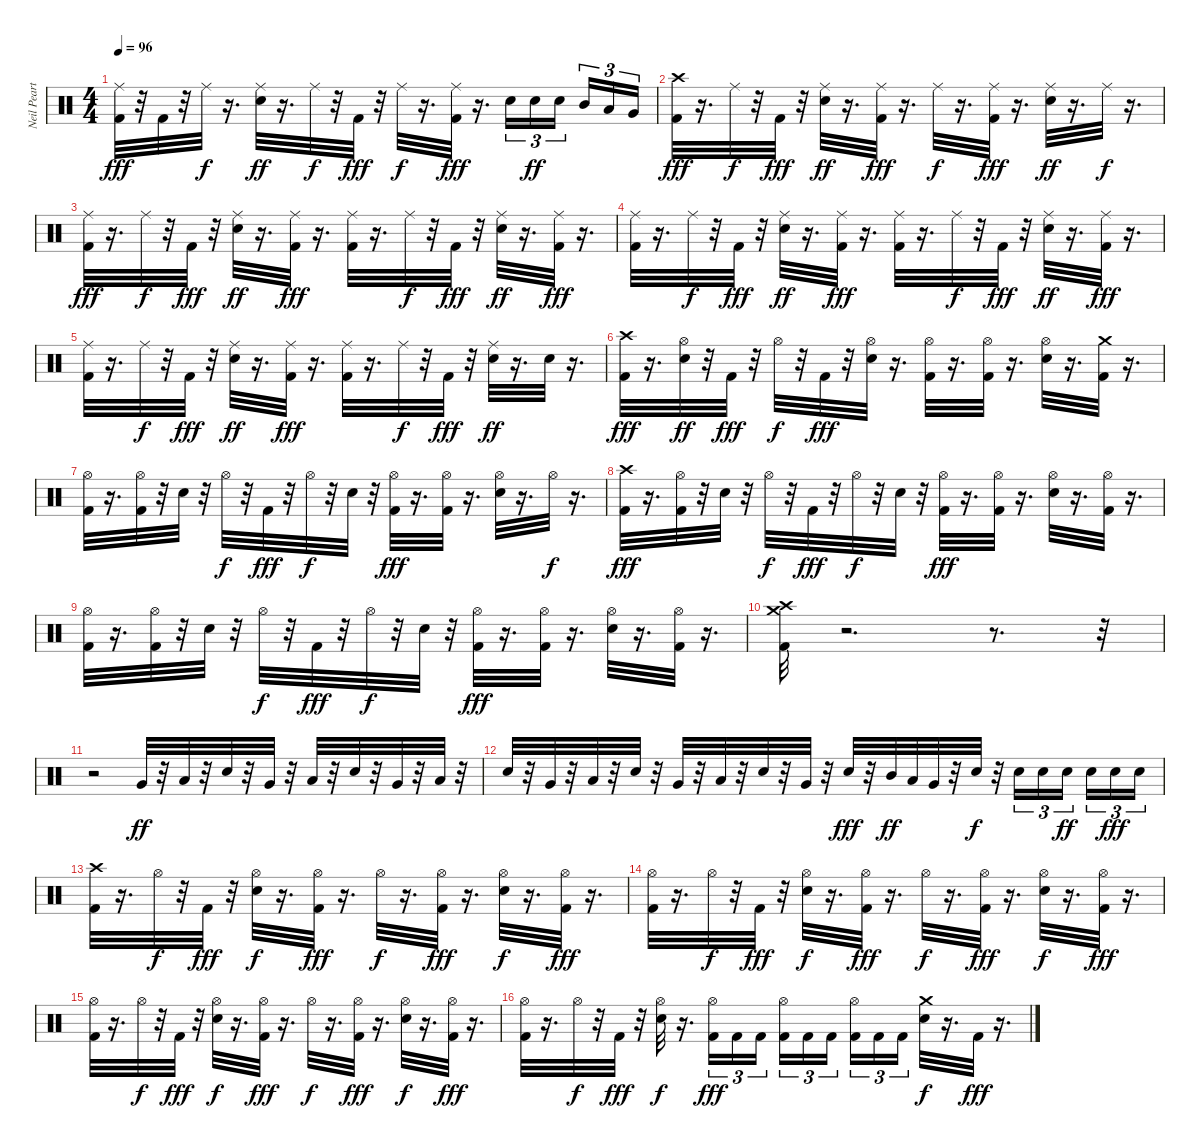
\track ("Neil Peart" "Neil Peart") {instrument percussion}
\staff {score}
\articulation defaults
\ts (4 4)
\tempo 96
\clef neutral
\ks c
("Ride (middle)" "Kick (hit) 2").32{dy fff} r.32 "Kick (hit) 2".32 r.32 "Ride (middle)".32{dy f} r.16{d} ("Ride (middle)" "Snare (hit) 2").32{dy ff} r.16{d} "Ride (middle)".32{dy f} r.32 "Kick (hit) 2".32{dy fff} r.32 "Ride (middle)".32{dy f} r.16{d} ("Ride (middle)" "Kick (hit) 2").32{dy fff} r.16{d} "Snare (hit) 2".16{tu (3 2)} "Snare (hit) 2".16{tu (3 2) dy ff} "Snare (hit) 2".16{tu (3 2) beam splitsecondary} "Mid Tom (hit)".16{tu (3 2)} "Low Tom (hit)".16{tu (3 2)} "Very Low Tom (hit)".16{tu (3 2)} |
("Crash high (hit)" "Kick (hit) 2").32{dy fff} r.16{d} "Ride (middle)".32{dy f} r.32 "Kick (hit) 2".32{dy fff} r.32 ("Ride (middle)" "Snare (hit) 2").32{dy ff} r.16{d} ("Ride (middle)" "Kick (hit) 2").32{dy fff} r.16{d} "Ride (middle)".32{dy f} r.16{d} ("Ride (middle)" "Kick (hit) 2").32{dy fff} r.16{d} ("Ride (middle)" "Snare (hit) 2").32{dy ff} r.16{d} "Ride (middle)".32{dy f} r.16{d} |
("Ride (middle)" "Kick (hit) 2").32{dy fff} r.16{d} "Ride (middle)".32{dy f} r.32 "Kick (hit) 2".32{dy fff} r.32 ("Ride (middle)" "Snare (hit) 2").32{dy ff} r.16{d} ("Ride (middle)" "Kick (hit) 2").32{dy fff} r.16{d} ("Ride (middle)" "Kick (hit) 2").32 r.16{d} "Ride (middle)".32{dy f} r.32 "Kick (hit) 2".32{dy fff} r.32 ("Ride (middle)" "Snare (hit) 2").32{dy ff} r.16{d} ("Ride (middle)" "Kick (hit) 2").32{dy fff} r.16{d} |
("Ride (middle)" "Kick (hit) 2").32 r.16{d} "Ride (middle)".32{dy f} r.32 "Kick (hit) 2".32{dy fff} r.32 ("Ride (middle)" "Snare (hit) 2").32{dy ff} r.16{d} ("Ride (middle)" "Kick (hit) 2").32{dy fff} r.16{d} ("Ride (middle)" "Kick (hit) 2").32 r.16{d} "Ride (middle)".32{dy f} r.32 "Kick (hit) 2".32{dy fff} r.32 ("Ride (middle)" "Snare (hit) 2").32{dy ff} r.16{d} ("Ride (middle)" "Kick (hit) 2").32{dy fff} r.16{d} |
("Ride (middle)" "Kick (hit) 2").32 r.16{d} "Ride (middle)".32{dy f} r.32 "Kick (hit) 2".32{dy fff} r.32 ("Ride (middle)" "Snare (hit) 2").32{dy ff} r.16{d} ("Ride (middle)" "Kick (hit) 2").32{dy fff} r.16{d} ("Ride (middle)" "Kick (hit) 2").32 r.16{d} "Ride (middle)".32{dy f} r.32 "Kick (hit) 2".32{dy fff} r.32 ("Ride (middle)" "Snare (hit) 2").32{dy ff} r.16{d} "Snare (hit) 2".32 r.16{d} |
("Crash high (hit)" "Kick (hit) 2").32{dy fff} r.16{d} ("Hi-Hat (open)" "Snare (hit) 2").32{dy ff} r.32 "Kick (hit) 2".32{dy fff} r.32 "Hi-Hat (open)".32{dy f} r.32 "Kick (hit) 2".32{dy fff} r.32 ("Hi-Hat (open)" "Snare (hit) 2").32 r.16{d} ("Hi-Hat (open)" "Kick (hit) 2").32 r.16{d} ("Hi-Hat (open)" "Kick (hit) 2").32 r.16{d} ("Hi-Hat (open)" "Snare (hit) 2").32 r.16{d} ("Crash medium (hit)" "Kick (hit) 2").32 r.16{d} |
("Hi-Hat (open)" "Kick (hit) 2").32 r.16{d} ("Hi-Hat (open)" "Kick (hit) 2").32 r.32 "Snare (hit) 2".32 r.32 "Hi-Hat (open)".32{dy f} r.32 "Kick (hit) 2".32{dy fff} r.32 "Hi-Hat (open)".32{dy f} r.32 "Snare (hit) 2".32 r.32 ("Hi-Hat (open)" "Kick (hit) 2").32{dy fff} r.16{d} ("Hi-Hat (open)" "Kick (hit) 2").32 r.16{d} ("Hi-Hat (open)" "Snare (hit) 2").32 r.16{d} "Hi-Hat (open)".32{dy f} r.16{d} |
("Crash high (hit)" "Kick (hit) 2").32{dy fff} r.16{d} ("Hi-Hat (open)" "Kick (hit) 2").32 r.32 "Snare (hit) 2".32 r.32 "Hi-Hat (open)".32{dy f} r.32 "Kick (hit) 2".32{dy fff} r.32 "Hi-Hat (open)".32{dy f} r.32 "Snare (hit) 2".32 r.32 ("Hi-Hat (open)" "Kick (hit) 2").32{dy fff} r.16{d} ("Hi-Hat (open)" "Kick (hit) 2").32 r.16{d} ("Hi-Hat (open)" "Snare (hit) 2").32 r.16{d} ("Kick (hit) 2" "Hi-Hat (open)").32 r.16{d} |
("Hi-Hat (open)" "Kick (hit) 2").32 r.16{d} ("Hi-Hat (open)" "Kick (hit) 2").32 r.32 "Snare (hit) 2".32 r.32 "Hi-Hat (open)".32{dy f} r.32 "Kick (hit) 2".32{dy fff} r.32 "Hi-Hat (open)".32{dy f} r.32 "Snare (hit) 2".32 r.32 ("Hi-Hat (open)" "Kick (hit) 2").32{dy fff} r.16{d} ("Hi-Hat (open)" "Kick (hit) 2").32 r.16{d} ("Hi-Hat (open)" "Snare (hit) 2").32 r.16{d} ("Hi-Hat (open)" "Kick (hit) 2").32 r.16{d} |
("Crash medium (hit)" "Crash high (hit)" "Kick (hit) 2").32 r.2{d} r.8{d} r.32 |
r.2 "Very Low Tom (hit)".32{dy ff} r.32 "Low Tom (hit)".32 r.32 "Snare (hit) 2".32 r.32 "Very Low Tom (hit)".32 r.32 "Low Tom (hit)".32 r.32 "Snare (hit) 2".32 r.32 "Very Low Tom (hit)".32 r.32 "Low Tom (hit)".32 r.32 |
"Snare (hit) 2".32 r.32 "Very Low Tom (hit)".32 r.32 "Low Tom (hit)".32 r.32 "Snare (hit) 2".32 r.32 "Very Low Tom (hit)".32 r.32 "Low Tom (hit)".32 r.32 "Snare (hit) 2".32 r.32 "Very Low Tom (hit)".32 r.32 "Snare (hit) 2".32{dy fff} r.32 "Mid Tom (hit)".32{dy ff} "Low Tom (hit)".32 "Very Low Tom (hit)".32 r.32 "Snare (hit) 2".32{dy f} r.32 "Snare (hit) 2".16{tu (3 2)} "Snare (hit) 2".16{tu (3 2)} "Snare (hit) 2".16{tu (3 2) dy ff beam splitsecondary} "Snare (hit) 2".16{tu (3 2)} "Snare (hit) 2".16{tu (3 2) dy fff} "Snare (hit) 2".16{tu (3 2)} |
("Crash high (hit)" "Kick (hit) 2").32 r.16{d} "Hi-Hat (open)".32{dy f} r.32 "Kick (hit) 2".32{dy fff} r.32 ("Hi-Hat (open)" "Snare (hit) 2").32{dy f} r.16{d} ("Hi-Hat (open)" "Kick (hit) 2").32{dy fff} r.16{d} "Hi-Hat (open)".32{dy f} r.16{d} ("Hi-Hat (open)" "Kick (hit) 2").32{dy fff} r.16{d} ("Hi-Hat (open)" "Snare (hit) 2").32{dy f} r.16{d} ("Hi-Hat (open)" "Kick (hit) 2").32{dy fff} r.16{d} |
("Hi-Hat (open)" "Kick (hit) 2").32 r.16{d} "Hi-Hat (open)".32{dy f} r.32 "Kick (hit) 2".32{dy fff} r.32 ("Hi-Hat (open)" "Snare (hit) 2").32{dy f} r.16{d} ("Hi-Hat (open)" "Kick (hit) 2").32{dy fff} r.16{d} "Hi-Hat (open)".32{dy f} r.16{d} ("Hi-Hat (open)" "Kick (hit) 2").32{dy fff} r.16{d} ("Hi-Hat (open)" "Snare (hit) 2").32{dy f} r.16{d} ("Hi-Hat (open)" "Kick (hit) 2").32{dy fff} r.16{d} |
("Hi-Hat (open)" "Kick (hit) 2").32 r.16{d} "Hi-Hat (open)".32{dy f} r.32 "Kick (hit) 2".32{dy fff} r.32 ("Hi-Hat (open)" "Snare (hit) 2").32{dy f} r.16{d} ("Hi-Hat (open)" "Kick (hit) 2").32{dy fff} r.16{d} "Hi-Hat (open)".32{dy f} r.16{d} ("Hi-Hat (open)" "Kick (hit) 2").32{dy fff} r.16{d} ("Hi-Hat (open)" "Snare (hit) 2").32{dy f} r.16{d} ("Hi-Hat (open)" "Kick (hit) 2").32{dy fff} r.16{d} |
("Hi-Hat (open)" "Kick (hit) 2").32 r.16{d} "Hi-Hat (open)".32{dy f} r.32 "Kick (hit) 2".32{dy fff} r.32 ("Hi-Hat (open)" "Snare (hit) 2").32{dy f} r.16{d} ("Hi-Hat (open)" "Kick (hit) 2").16{tu (3 2) dy fff} "Kick (hit) 2".16{tu (3 2)} "Kick (hit) 2".16{tu (3 2)} ("Kick (hit) 2" "Hi-Hat (open)").16{tu (3 2)} "Kick (hit) 2".16{tu (3 2)} "Kick (hit) 2".16{tu (3 2) beam splitsecondary} ("Hi-Hat (open)" "Kick (hit) 2").16{tu (3 2)} "Kick (hit) 2".16{tu (3 2)} "Kick (hit) 2".16{tu (3 2)} ("Crash medium (hit)" "Snare (hit) 2").32{dy f} r.16{d} "Kick (hit) 2".32{dy fff} r.16{d}
